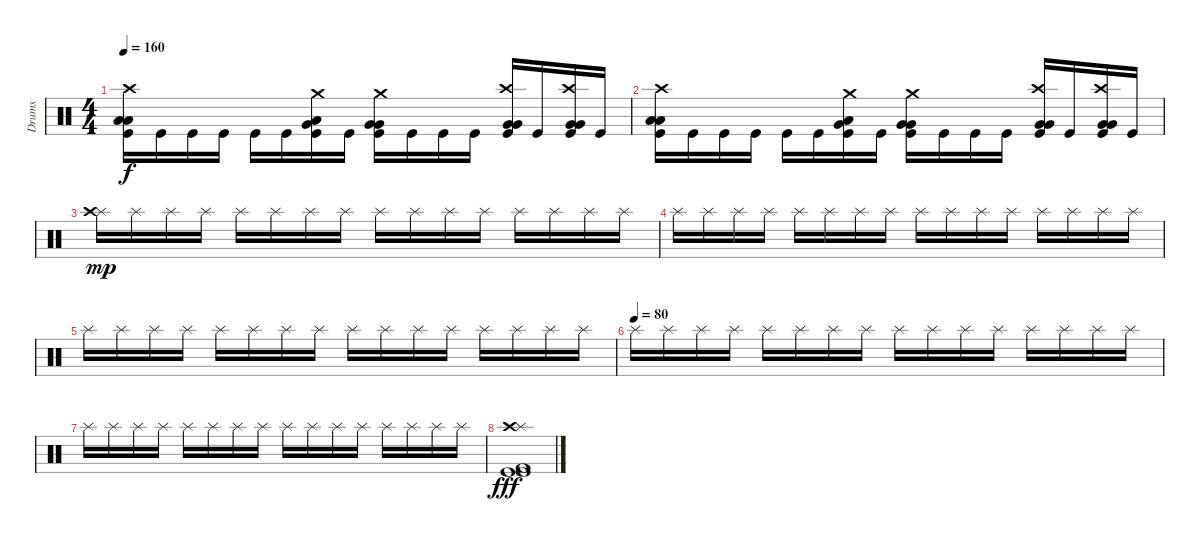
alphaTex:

\track ("Drums" "Drums") {instrument percussion}
\staff {score}
\articulation defaults
\ts (4 4)
\tempo 160
\clef neutral
\ks c
("Low Floor Tom (hit)" "Kick (hit)" "Low Floor Tom (hit)" "Crash high (hit)").16{dy f} "Kick (hit)".16 "Kick (hit)".16 "Kick (hit)".16 "Kick (hit)".16 "Kick (hit)".16 ("Low Floor Tom (hit)" "Kick (hit)" "Very Low Tom (hit)" "Crash medium (hit)").16 "Kick (hit)".16 ("Very Low Tom (hit)" "Kick (hit)" "Very Low Tom (hit)" "Crash medium (hit)").16 "Kick (hit)".16 "Kick (hit)".16 "Kick (hit)".16 ("Very Low Tom (hit)" "Kick (hit)" "Very Low Tom (hit)" "Crash high (hit)").16 "Kick (hit)".16 ("Very Low Tom (hit)" "Kick (hit)" "Very Low Tom (hit)" "Crash high (hit)").16 "Kick (hit)".16 |
("Low Floor Tom (hit)" "Kick (hit)" "Low Floor Tom (hit)" "Crash high (hit)").16 "Kick (hit)".16 "Kick (hit)".16 "Kick (hit)".16 "Kick (hit)".16 "Kick (hit)".16 ("Low Floor Tom (hit)" "Kick (hit)" "Very Low Tom (hit)" "Crash medium (hit)").16 "Kick (hit)".16 ("Very Low Tom (hit)" "Kick (hit)" "Very Low Tom (hit)" "Crash medium (hit)").16 "Kick (hit)".16 "Kick (hit)".16 "Kick (hit)".16 ("Very Low Tom (hit)" "Kick (hit)" "Very Low Tom (hit)" "Crash high (hit)").16 "Kick (hit)".16 ("Very Low Tom (hit)" "Kick (hit)" "Very Low Tom (hit)" "Crash high (hit)").16 "Kick (hit)".16 |
("Splash (hit)" "Crash high (hit)").16{dy mp} "Splash (hit)".16 "Splash (hit)".16 "Splash (hit)".16 "Splash (hit)".16 "Splash (hit)".16 "Splash (hit)".16 "Splash (hit)".16 "Splash (hit)".16 "Splash (hit)".16 "Splash (hit)".16 "Splash (hit)".16 "Splash (hit)".16 "Splash (hit)".16 "Splash (hit)".16 "Splash (hit)".16 |
"Splash (hit)".16 "Splash (hit)".16 "Splash (hit)".16 "Splash (hit)".16 "Splash (hit)".16 "Splash (hit)".16 "Splash (hit)".16 "Splash (hit)".16 "Splash (hit)".16 "Splash (hit)".16 "Splash (hit)".16 "Splash (hit)".16 "Splash (hit)".16 "Splash (hit)".16 "Splash (hit)".16 "Splash (hit)".16 |
"Splash (hit)".16 "Splash (hit)".16 "Splash (hit)".16 "Splash (hit)".16 "Splash (hit)".16 "Splash (hit)".16 "Splash (hit)".16 "Splash (hit)".16 "Splash (hit)".16 "Splash (hit)".16 "Splash (hit)".16 "Splash (hit)".16 "Splash (hit)".16 "Splash (hit)".16 "Splash (hit)".16 "Splash (hit)".16 |
\tempo (80)
"Splash (hit)".16 "Splash (hit)".16 "Splash (hit)".16 "Splash (hit)".16 "Splash (hit)".16 "Splash (hit)".16 "Splash (hit)".16 "Splash (hit)".16 "Splash (hit)".16 "Splash (hit)".16 "Splash (hit)".16 "Splash (hit)".16 "Splash (hit)".16 "Splash (hit)".16 "Splash (hit)".16 "Splash (hit)".16 |
"Splash (hit)".16 "Splash (hit)".16 "Splash (hit)".16 "Splash (hit)".16 "Splash (hit)".16 "Splash (hit)".16 "Splash (hit)".16 "Splash (hit)".16 "Splash (hit)".16 "Splash (hit)".16 "Splash (hit)".16 "Splash (hit)".16 "Splash (hit)".16 "Splash (hit)".16 "Splash (hit)".16 "Splash (hit)".16 |
("Kick (hit) 2" "Kick (hit)" "Kick (hit)" "Crash high (hit)" "Splash (hit)").1{dy fff}
